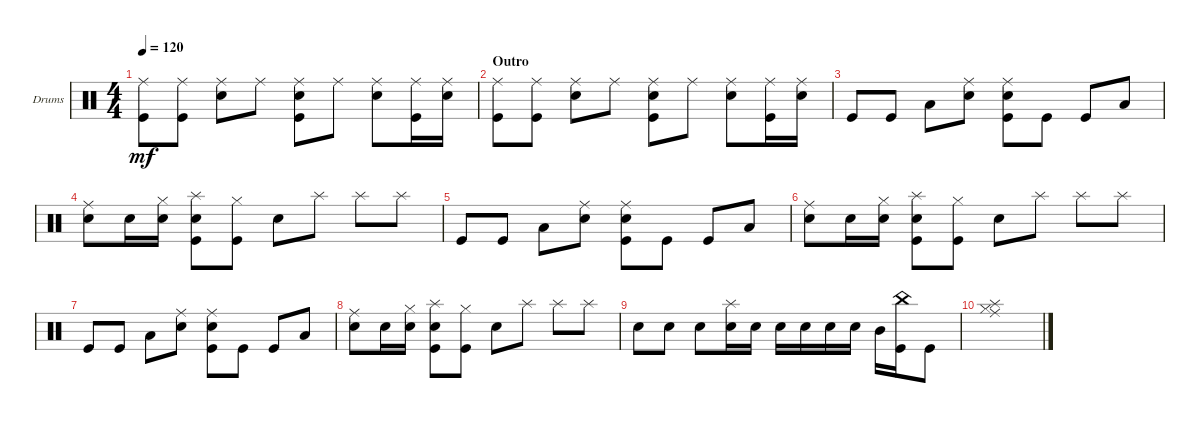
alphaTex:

\defaultSystemsLayout 4
\bracketExtendMode groupsimilarinstruments
\firstSystemTrackNameOrientation horizontal
\otherSystemsTrackNameOrientation horizontal
\track ("Drumkit" "Drums") {instrument percussion}
\staff {score}
\articulation defaults
\ts (4 4)
\tempo 120
\clef neutral
\ks c
("Ride (middle)" "Kick (hit)").8{dy mf} ("Ride (middle)" "Kick (hit)").8 ("Ride (middle)" "Snare (hit) 2").8 "Ride (middle)".8 ("Ride (middle)" "Snare (hit) 2" "Kick (hit)").8 "Ride (middle)".8 ("Ride (middle)" "Snare (hit) 2").8 ("Ride (middle)" "Kick (hit)").16 ("Snare (hit) 2" "Ride (middle)").16 |
\section ("" "Outro")
("Ride (middle)" "Kick (hit)").8 ("Ride (middle)" "Kick (hit)").8 ("Ride (middle)" "Snare (hit) 2").8 "Ride (middle)".8 ("Ride (middle)" "Snare (hit) 2" "Kick (hit)").8 "Ride (middle)".8 ("Ride (middle)" "Snare (hit) 2").8 ("Ride (middle)" "Kick (hit)").16 ("Snare (hit) 2" "Ride (middle)").16 |
"Kick (hit)".8 "Kick (hit)".8 "Low Tom (hit)".8 ("Ride (middle)" "Snare (hit) 2").8 ("Snare (hit) 2" "Kick (hit)" "Ride (middle)").8 "Kick (hit)".8 "Kick (hit)".8 "Low Tom (hit)".8 |
("Ride (middle)" "Snare (hit) 2").8 "Snare (hit) 2".16 ("Hi-Hat (closed)" "Snare (hit) 2").16 ("Splash (hit)" "Snare (hit) 2" "Kick (hit)").8 ("Hi-Hat (closed)" "Kick (hit)").8 "Snare (hit) 2".8 "Splash (hit)".8 "Splash (hit)".8 "Splash (hit)".8 |
"Kick (hit)".8 "Kick (hit)".8 "Low Tom (hit)".8 ("Ride (middle)" "Snare (hit) 2").8 ("Snare (hit) 2" "Kick (hit)" "Ride (middle)").8 "Kick (hit)".8 "Kick (hit)".8 "Low Tom (hit)".8 |
("Ride (middle)" "Snare (hit) 2").8 "Snare (hit) 2".16 ("Hi-Hat (closed)" "Snare (hit) 2").16 ("Splash (hit)" "Snare (hit) 2" "Kick (hit)").8 ("Hi-Hat (closed)" "Kick (hit)").8 "Snare (hit) 2".8 "Splash (hit)".8 "Splash (hit)".8 "Splash (hit)".8 |
"Kick (hit)".8 "Kick (hit)".8 "Low Tom (hit)".8 ("Ride (middle)" "Snare (hit) 2").8 ("Snare (hit) 2" "Kick (hit)" "Ride (middle)").8 "Kick (hit)".8 "Kick (hit)".8 "Low Tom (hit)".8 |
("Ride (middle)" "Snare (hit) 2").8 "Snare (hit) 2".16 ("Hi-Hat (closed)" "Snare (hit) 2").16 ("Splash (hit)" "Snare (hit) 2" "Kick (hit)").8 ("Hi-Hat (closed)" "Kick (hit)").8 "Snare (hit) 2".8 "Splash (hit)".8 "Splash (hit)".8 "Splash (hit)".8 |
"Snare (hit) 2".8 "Snare (hit) 2".8 "Snare (hit) 2".8 ("Splash (hit)" "Snare (hit) 2").16 "Snare (hit) 2".16 "Snare (hit) 2".16 "Snare (hit) 2".16 "Snare (hit) 2".16 "Snare (hit) 2".16 "Mid Tom (hit)".16 ("Kick (hit)" "China (hit)").16 "Kick (hit)".8 |
("Splash (hit)" "Hi-Hat (closed)" "Ride (middle)").1
